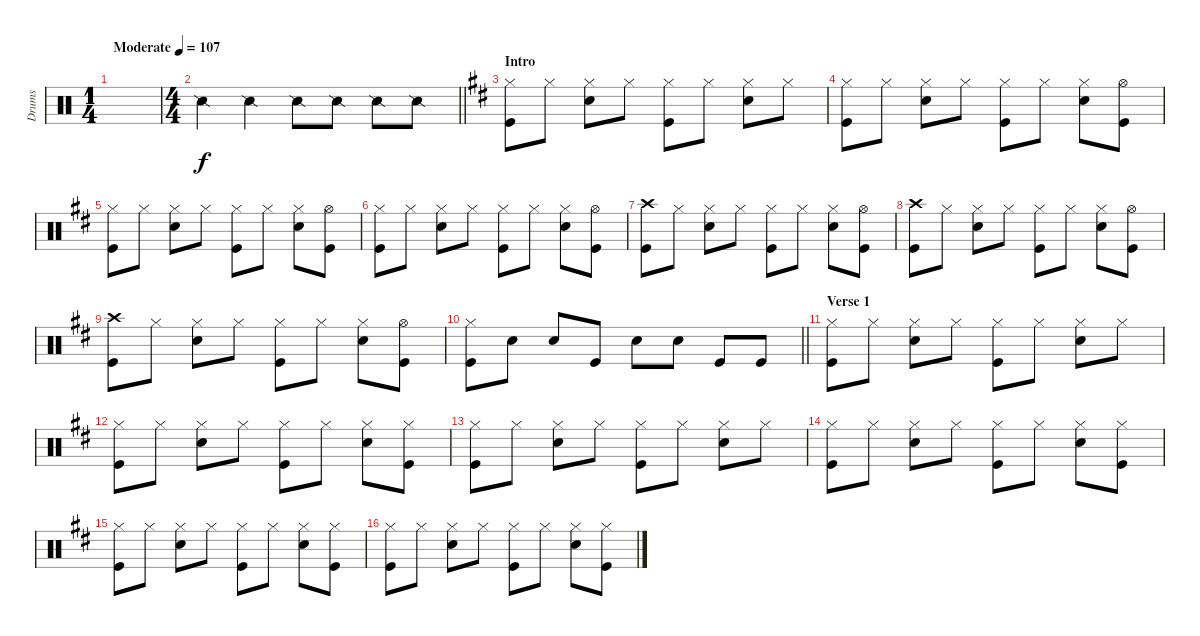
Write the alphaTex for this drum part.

\track ("Drums" "Drums") {instrument percussion}
\staff {score}
\articulation defaults
\ts (1 4)
\tempo (107 "Moderate")
\clef neutral
\ks c
|
\ts (4 4)
\barLineRight lightlight "Snare (side stick) 2".4 "Snare (side stick) 2".4 "Snare (side stick) 2".8 "Snare (side stick) 2".8 "Snare (side stick) 2".8 "Snare (side stick) 2".8
|
\section ("" "Intro")
\ks d
("Hi-Hat (closed)" "Kick (hit)").8 "Hi-Hat (closed)".8 ("Hi-Hat (closed)" "Snare (hit) 2").8 "Hi-Hat (closed)".8 ("Hi-Hat (closed)" "Kick (hit)").8 "Hi-Hat (closed)".8 ("Hi-Hat (closed)" "Snare (hit) 2").8 "Hi-Hat (closed)".8 |
("Hi-Hat (closed)" "Kick (hit)").8 "Hi-Hat (closed)".8 ("Hi-Hat (closed)" "Snare (hit) 2").8 "Hi-Hat (closed)".8 ("Hi-Hat (closed)" "Kick (hit)").8 "Hi-Hat (closed)".8 ("Hi-Hat (closed)" "Snare (hit) 2").8 ("Hi-Hat (open)" "Kick (hit)").8 |
("Hi-Hat (closed)" "Kick (hit)").8 "Hi-Hat (closed)".8 ("Hi-Hat (closed)" "Snare (hit) 2").8 "Hi-Hat (closed)".8 ("Hi-Hat (closed)" "Kick (hit)").8 "Hi-Hat (closed)".8 ("Hi-Hat (closed)" "Snare (hit) 2").8 ("Hi-Hat (open)" "Kick (hit)").8 |
("Hi-Hat (closed)" "Kick (hit)").8 "Hi-Hat (closed)".8 ("Hi-Hat (closed)" "Snare (hit) 2").8 "Hi-Hat (closed)".8 ("Hi-Hat (closed)" "Kick (hit)").8 "Hi-Hat (closed)".8 ("Hi-Hat (closed)" "Snare (hit) 2").8 ("Hi-Hat (open)" "Kick (hit)").8 |
("Crash high (hit)" "Kick (hit)").8 "Hi-Hat (closed)".8 ("Hi-Hat (closed)" "Snare (hit) 2").8 "Hi-Hat (closed)".8 ("Hi-Hat (closed)" "Kick (hit)").8 "Hi-Hat (closed)".8 ("Hi-Hat (closed)" "Snare (hit) 2").8 ("Hi-Hat (open)" "Kick (hit)").8 |
("Crash high (hit)" "Kick (hit)").8 "Hi-Hat (closed)".8 ("Hi-Hat (closed)" "Snare (hit) 2").8 "Hi-Hat (closed)".8 ("Hi-Hat (closed)" "Kick (hit)").8 "Hi-Hat (closed)".8 ("Hi-Hat (closed)" "Snare (hit) 2").8 ("Hi-Hat (open)" "Kick (hit)").8 |
("Crash high (hit)" "Kick (hit)").8 "Hi-Hat (closed)".8 ("Hi-Hat (closed)" "Snare (hit) 2").8 "Hi-Hat (closed)".8 ("Hi-Hat (closed)" "Kick (hit)").8 "Hi-Hat (closed)".8 ("Hi-Hat (closed)" "Snare (hit) 2").8 ("Hi-Hat (open)" "Kick (hit)").8 |
\barLineRight lightlight
("Hi-Hat (closed)" "Kick (hit)").8 "Snare (hit) 2".8 "Snare (hit) 2".8 "Kick (hit)".8 "Snare (hit) 2".8 "Snare (hit) 2".8 "Kick (hit)".8 "Kick (hit)".8 |
\section ("" "Verse 1")
("Hi-Hat (closed)" "Kick (hit)").8 "Hi-Hat (closed)".8 ("Hi-Hat (closed)" "Snare (hit) 2").8 "Hi-Hat (closed)".8 ("Hi-Hat (closed)" "Kick (hit)").8 "Hi-Hat (closed)".8 ("Hi-Hat (closed)" "Snare (hit) 2").8 "Hi-Hat (closed)".8 |
("Hi-Hat (closed)" "Kick (hit)").8 "Hi-Hat (closed)".8 ("Hi-Hat (closed)" "Snare (hit) 2").8 "Hi-Hat (closed)".8 ("Hi-Hat (closed)" "Kick (hit)").8 "Hi-Hat (closed)".8 ("Hi-Hat (closed)" "Snare (hit) 2").8 ("Hi-Hat (closed)" "Kick (hit)").8 |
("Hi-Hat (closed)" "Kick (hit)").8 "Hi-Hat (closed)".8 ("Hi-Hat (closed)" "Snare (hit) 2").8 "Hi-Hat (closed)".8 ("Hi-Hat (closed)" "Kick (hit)").8 "Hi-Hat (closed)".8 ("Hi-Hat (closed)" "Snare (hit) 2").8 "Hi-Hat (closed)".8 |
("Hi-Hat (closed)" "Kick (hit)").8 "Hi-Hat (closed)".8 ("Hi-Hat (closed)" "Snare (hit) 2").8 "Hi-Hat (closed)".8 ("Hi-Hat (closed)" "Kick (hit)").8 "Hi-Hat (closed)".8 ("Hi-Hat (closed)" "Snare (hit) 2").8 ("Hi-Hat (closed)" "Kick (hit)").8 |
("Hi-Hat (closed)" "Kick (hit)").8 "Hi-Hat (closed)".8 ("Hi-Hat (closed)" "Snare (hit) 2").8 "Hi-Hat (closed)".8 ("Hi-Hat (closed)" "Kick (hit)").8 "Hi-Hat (closed)".8 ("Hi-Hat (closed)" "Snare (hit) 2").8 ("Hi-Hat (closed)" "Kick (hit)").8 |
("Hi-Hat (closed)" "Kick (hit)").8 "Hi-Hat (closed)".8 ("Hi-Hat (closed)" "Snare (hit) 2").8 "Hi-Hat (closed)".8 ("Hi-Hat (closed)" "Kick (hit)").8 "Hi-Hat (closed)".8 ("Hi-Hat (closed)" "Snare (hit) 2").8 ("Hi-Hat (closed)" "Kick (hit)").8
